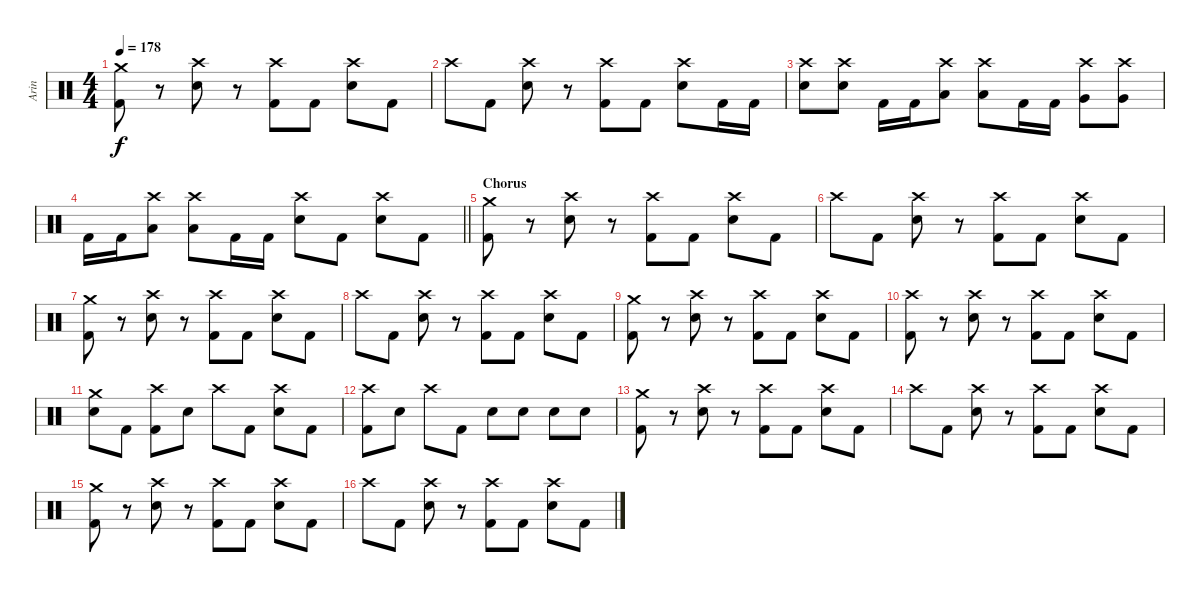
\track ("Arin" "Arin") {instrument percussion}
\staff {score}
\articulation defaults
\ts (4 4)
\tempo 178
\clef neutral
\ks c
("Crash medium (hit)" "Kick (hit) 2").8{dy f} r.8 ("Crash high (hit)" "Snare (hit) 2").8 r.8 ("Crash high (hit)" "Kick (hit) 2").8 "Kick (hit) 2".8 ("Crash high (hit)" "Snare (hit) 2").8 "Kick (hit) 2".8 |
"Crash high (hit)".8 "Kick (hit) 2".8 ("Crash high (hit)" "Snare (hit) 2").8 r.8 ("Crash high (hit)" "Kick (hit) 2").8 "Kick (hit) 2".8 ("Crash high (hit)" "Snare (hit) 2").8 "Kick (hit) 2".16 "Kick (hit) 2".16 |
("Crash high (hit)" "Snare (hit) 2").8 ("Crash high (hit)" "Snare (hit) 2").8 "Kick (hit) 2".16 "Kick (hit) 2".16 ("Crash high (hit)" "Low Tom (hit)").8 ("Crash high (hit)" "Low Tom (hit)").8 "Kick (hit) 2".16 "Kick (hit) 2".16 ("Crash high (hit)" "Very Low Tom (hit)").8 ("Crash high (hit)" "Very Low Tom (hit)").8 |
\barLineRight lightlight "Kick (hit) 2".16 "Kick (hit) 2".16
("Crash high (hit)" "Low Floor Tom (hit)").8 ("Crash high (hit)" "Low Floor Tom (hit)").8 "Kick (hit) 2".16 "Kick (hit) 2".16 ("Crash high (hit)" "Snare (hit) 2").8 "Kick (hit) 2".8 ("Crash high (hit)" "Snare (hit) 2").8 "Kick (hit) 2".8 |
\section ("" "Chorus")
("Crash medium (hit)" "Kick (hit) 2").8 r.8 ("Crash high (hit)" "Snare (hit) 2").8 r.8 ("Crash high (hit)" "Kick (hit) 2").8 "Kick (hit) 2".8 ("Crash high (hit)" "Snare (hit) 2").8 "Kick (hit) 2".8 |
"Crash high (hit)".8 "Kick (hit) 2".8 ("Crash high (hit)" "Snare (hit) 2").8 r.8 ("Crash high (hit)" "Kick (hit) 2").8 "Kick (hit) 2".8 ("Crash high (hit)" "Snare (hit) 2").8 "Kick (hit) 2".8 |
("Crash medium (hit)" "Kick (hit) 2").8 r.8 ("Crash high (hit)" "Snare (hit) 2").8 r.8 ("Crash high (hit)" "Kick (hit) 2").8 "Kick (hit) 2".8 ("Crash high (hit)" "Snare (hit) 2").8 "Kick (hit) 2".8 |
"Crash high (hit)".8 "Kick (hit) 2".8 ("Crash high (hit)" "Snare (hit) 2").8 r.8 ("Crash high (hit)" "Kick (hit) 2").8 "Kick (hit) 2".8 ("Crash high (hit)" "Snare (hit) 2").8 "Kick (hit) 2".8 |
("Crash medium (hit)" "Kick (hit) 2").8 r.8 ("Crash high (hit)" "Snare (hit) 2").8 r.8 ("Crash high (hit)" "Kick (hit) 2").8 "Kick (hit) 2".8 ("Crash high (hit)" "Snare (hit) 2").8 "Kick (hit) 2".8 |
("Crash high (hit)" "Kick (hit) 2").8 r.8 ("Crash high (hit)" "Snare (hit) 2").8 r.8 ("Crash high (hit)" "Kick (hit) 2").8 "Kick (hit) 2".8 ("Crash high (hit)" "Snare (hit) 2").8 "Kick (hit) 2".8 |
("Crash medium (hit)" "Snare (hit) 2").8 "Kick (hit) 2".8 ("Crash high (hit)" "Kick (hit) 2").8 "Snare (hit) 2".8 "Crash high (hit)".8 "Kick (hit) 2".8 ("Crash high (hit)" "Snare (hit) 2").8 "Kick (hit) 2".8 |
("Crash high (hit)" "Kick (hit) 2").8 "Snare (hit) 2".8 "Crash high (hit)".8 "Kick (hit) 2".8 "Snare (hit) 2".8 "Snare (hit) 2".8 "Snare (hit) 2".8 "Snare (hit) 2".8 |
("Crash medium (hit)" "Kick (hit) 2").8 r.8 ("Crash high (hit)" "Snare (hit) 2").8 r.8 ("Crash high (hit)" "Kick (hit) 2").8 "Kick (hit) 2".8 ("Crash high (hit)" "Snare (hit) 2").8 "Kick (hit) 2".8 |
"Crash high (hit)".8 "Kick (hit) 2".8 ("Crash high (hit)" "Snare (hit) 2").8 r.8 ("Crash high (hit)" "Kick (hit) 2").8 "Kick (hit) 2".8 ("Crash high (hit)" "Snare (hit) 2").8 "Kick (hit) 2".8 |
("Crash medium (hit)" "Kick (hit) 2").8 r.8 ("Crash high (hit)" "Snare (hit) 2").8 r.8 ("Crash high (hit)" "Kick (hit) 2").8 "Kick (hit) 2".8 ("Crash high (hit)" "Snare (hit) 2").8 "Kick (hit) 2".8 |
"Crash high (hit)".8 "Kick (hit) 2".8 ("Crash high (hit)" "Snare (hit) 2").8 r.8 ("Crash high (hit)" "Kick (hit) 2").8 "Kick (hit) 2".8 ("Crash high (hit)" "Snare (hit) 2").8 "Kick (hit) 2".8
